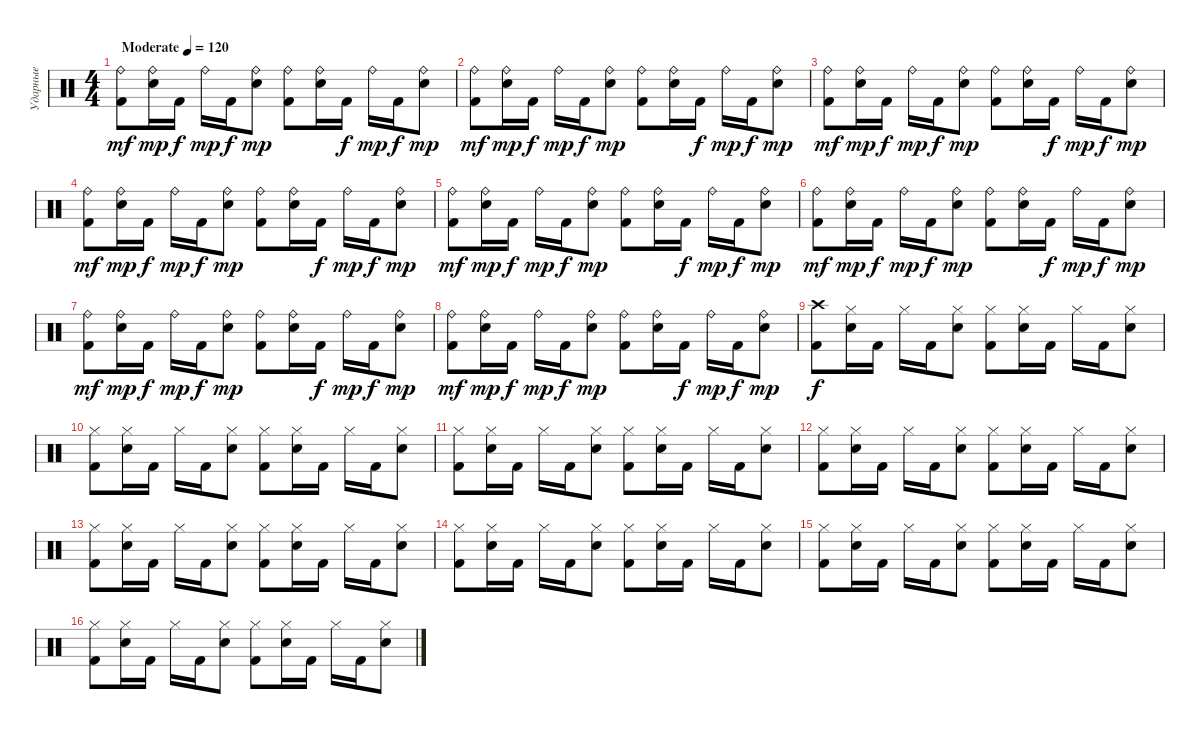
\track ("Ударные" "Ударные") {instrument percussion}
\staff {score}
\articulation defaults
\ts (4 4)
\tempo (120 "Moderate")
\clef neutral
\ks c
("Ride (bell)" "Kick (hit) 2").8{dy mf} ("Ride (bell)" "Electric Snare (hit)").16{dy mp} "Kick (hit) 2".16{dy f} "Ride (bell)".16{dy mp} "Kick (hit) 2".16{dy f} ("Ride (bell)" "Electric Snare (hit)").8{dy mp} ("Ride (bell)" "Kick (hit) 2").8 ("Ride (bell)" "Electric Snare (hit)").16 "Kick (hit) 2".16{dy f} "Ride (bell)".16{dy mp} "Kick (hit) 2".16{dy f} ("Ride (bell)" "Electric Snare (hit)").8{dy mp} |
("Ride (bell)" "Kick (hit) 2").8{dy mf} ("Ride (bell)" "Electric Snare (hit)").16{dy mp} "Kick (hit) 2".16{dy f} "Ride (bell)".16{dy mp} "Kick (hit) 2".16{dy f} ("Ride (bell)" "Electric Snare (hit)").8{dy mp} ("Ride (bell)" "Kick (hit) 2").8 ("Ride (bell)" "Electric Snare (hit)").16 "Kick (hit) 2".16{dy f} "Ride (bell)".16{dy mp} "Kick (hit) 2".16{dy f} ("Ride (bell)" "Electric Snare (hit)").8{dy mp} |
("Ride (bell)" "Kick (hit) 2").8{dy mf} ("Ride (bell)" "Electric Snare (hit)").16{dy mp} "Kick (hit) 2".16{dy f} "Ride (bell)".16{dy mp} "Kick (hit) 2".16{dy f} ("Ride (bell)" "Electric Snare (hit)").8{dy mp} ("Ride (bell)" "Kick (hit) 2").8 ("Ride (bell)" "Electric Snare (hit)").16 "Kick (hit) 2".16{dy f} "Ride (bell)".16{dy mp} "Kick (hit) 2".16{dy f} ("Ride (bell)" "Electric Snare (hit)").8{dy mp} |
("Ride (bell)" "Kick (hit) 2").8{dy mf} ("Ride (bell)" "Electric Snare (hit)").16{dy mp} "Kick (hit) 2".16{dy f} "Ride (bell)".16{dy mp} "Kick (hit) 2".16{dy f} ("Ride (bell)" "Electric Snare (hit)").8{dy mp} ("Ride (bell)" "Kick (hit) 2").8 ("Ride (bell)" "Electric Snare (hit)").16 "Kick (hit) 2".16{dy f} "Ride (bell)".16{dy mp} "Kick (hit) 2".16{dy f} ("Ride (bell)" "Electric Snare (hit)").8{dy mp} |
("Ride (bell)" "Kick (hit) 2").8{dy mf} ("Ride (bell)" "Electric Snare (hit)").16{dy mp} "Kick (hit) 2".16{dy f} "Ride (bell)".16{dy mp} "Kick (hit) 2".16{dy f} ("Ride (bell)" "Electric Snare (hit)").8{dy mp} ("Ride (bell)" "Kick (hit) 2").8 ("Ride (bell)" "Electric Snare (hit)").16 "Kick (hit) 2".16{dy f} "Ride (bell)".16{dy mp} "Kick (hit) 2".16{dy f} ("Ride (bell)" "Electric Snare (hit)").8{dy mp} |
("Ride (bell)" "Kick (hit) 2").8{dy mf} ("Ride (bell)" "Electric Snare (hit)").16{dy mp} "Kick (hit) 2".16{dy f} "Ride (bell)".16{dy mp} "Kick (hit) 2".16{dy f} ("Ride (bell)" "Electric Snare (hit)").8{dy mp} ("Ride (bell)" "Kick (hit) 2").8 ("Ride (bell)" "Electric Snare (hit)").16 "Kick (hit) 2".16{dy f} "Ride (bell)".16{dy mp} "Kick (hit) 2".16{dy f} ("Ride (bell)" "Electric Snare (hit)").8{dy mp} |
("Ride (bell)" "Kick (hit) 2").8{dy mf} ("Ride (bell)" "Electric Snare (hit)").16{dy mp} "Kick (hit) 2".16{dy f} "Ride (bell)".16{dy mp} "Kick (hit) 2".16{dy f} ("Ride (bell)" "Electric Snare (hit)").8{dy mp} ("Ride (bell)" "Kick (hit) 2").8 ("Ride (bell)" "Electric Snare (hit)").16 "Kick (hit) 2".16{dy f} "Ride (bell)".16{dy mp} "Kick (hit) 2".16{dy f} ("Ride (bell)" "Electric Snare (hit)").8{dy mp} |
("Ride (bell)" "Kick (hit) 2").8{dy mf} ("Ride (bell)" "Electric Snare (hit)").16{dy mp} "Kick (hit) 2".16{dy f} "Ride (bell)".16{dy mp} "Kick (hit) 2".16{dy f} ("Ride (bell)" "Electric Snare (hit)").8{dy mp} ("Ride (bell)" "Kick (hit) 2").8 ("Ride (bell)" "Electric Snare (hit)").16 "Kick (hit) 2".16{dy f} "Ride (bell)".16{dy mp} "Kick (hit) 2".16{dy f} ("Ride (bell)" "Electric Snare (hit)").8{dy mp} |
("Crash high (hit)" "Kick (hit) 2").8{dy f} ("Hi-Hat (closed)" "Electric Snare (hit)").16 "Kick (hit) 2".16 "Hi-Hat (closed)".16 "Kick (hit) 2".16 ("Hi-Hat (closed)" "Electric Snare (hit)").8 ("Hi-Hat (closed)" "Kick (hit) 2").8 ("Hi-Hat (closed)" "Electric Snare (hit)").16 "Kick (hit) 2".16 "Hi-Hat (closed)".16 "Kick (hit) 2".16 ("Hi-Hat (closed)" "Electric Snare (hit)").8 |
("Hi-Hat (closed)" "Kick (hit) 2").8 ("Hi-Hat (closed)" "Electric Snare (hit)").16 "Kick (hit) 2".16 "Hi-Hat (closed)".16 "Kick (hit) 2".16 ("Hi-Hat (closed)" "Electric Snare (hit)").8 ("Hi-Hat (closed)" "Kick (hit) 2").8 ("Hi-Hat (closed)" "Electric Snare (hit)").16 "Kick (hit) 2".16 "Hi-Hat (closed)".16 "Kick (hit) 2".16 ("Hi-Hat (closed)" "Electric Snare (hit)").8 |
("Hi-Hat (closed)" "Kick (hit) 2").8 ("Hi-Hat (closed)" "Electric Snare (hit)").16 "Kick (hit) 2".16 "Hi-Hat (closed)".16 "Kick (hit) 2".16 ("Hi-Hat (closed)" "Electric Snare (hit)").8 ("Hi-Hat (closed)" "Kick (hit) 2").8 ("Hi-Hat (closed)" "Electric Snare (hit)").16 "Kick (hit) 2".16 "Hi-Hat (closed)".16 "Kick (hit) 2".16 ("Hi-Hat (closed)" "Electric Snare (hit)").8 |
("Hi-Hat (closed)" "Kick (hit) 2").8 ("Hi-Hat (closed)" "Electric Snare (hit)").16 "Kick (hit) 2".16 "Hi-Hat (closed)".16 "Kick (hit) 2".16 ("Hi-Hat (closed)" "Electric Snare (hit)").8 ("Hi-Hat (closed)" "Kick (hit) 2").8 ("Hi-Hat (closed)" "Electric Snare (hit)").16 "Kick (hit) 2".16 "Hi-Hat (closed)".16 "Kick (hit) 2".16 ("Hi-Hat (closed)" "Electric Snare (hit)").8 |
("Hi-Hat (closed)" "Kick (hit) 2").8 ("Hi-Hat (closed)" "Electric Snare (hit)").16 "Kick (hit) 2".16 "Hi-Hat (closed)".16 "Kick (hit) 2".16 ("Hi-Hat (closed)" "Electric Snare (hit)").8 ("Hi-Hat (closed)" "Kick (hit) 2").8 ("Hi-Hat (closed)" "Electric Snare (hit)").16 "Kick (hit) 2".16 "Hi-Hat (closed)".16 "Kick (hit) 2".16 ("Hi-Hat (closed)" "Electric Snare (hit)").8 |
("Hi-Hat (closed)" "Kick (hit) 2").8 ("Hi-Hat (closed)" "Electric Snare (hit)").16 "Kick (hit) 2".16 "Hi-Hat (closed)".16 "Kick (hit) 2".16 ("Hi-Hat (closed)" "Electric Snare (hit)").8 ("Hi-Hat (closed)" "Kick (hit) 2").8 ("Hi-Hat (closed)" "Electric Snare (hit)").16 "Kick (hit) 2".16 "Hi-Hat (closed)".16 "Kick (hit) 2".16 ("Hi-Hat (closed)" "Electric Snare (hit)").8 |
("Hi-Hat (closed)" "Kick (hit) 2").8 ("Hi-Hat (closed)" "Electric Snare (hit)").16 "Kick (hit) 2".16 "Hi-Hat (closed)".16 "Kick (hit) 2".16 ("Hi-Hat (closed)" "Electric Snare (hit)").8 ("Hi-Hat (closed)" "Kick (hit) 2").8 ("Hi-Hat (closed)" "Electric Snare (hit)").16 "Kick (hit) 2".16 "Hi-Hat (closed)".16 "Kick (hit) 2".16 ("Hi-Hat (closed)" "Electric Snare (hit)").8 |
("Hi-Hat (closed)" "Kick (hit) 2").8 ("Hi-Hat (closed)" "Electric Snare (hit)").16 "Kick (hit) 2".16 "Hi-Hat (closed)".16 "Kick (hit) 2".16 ("Hi-Hat (closed)" "Electric Snare (hit)").8 ("Hi-Hat (closed)" "Kick (hit) 2").8 ("Hi-Hat (closed)" "Electric Snare (hit)").16 "Kick (hit) 2".16 "Hi-Hat (closed)".16 "Kick (hit) 2".16 ("Hi-Hat (closed)" "Electric Snare (hit)").8
